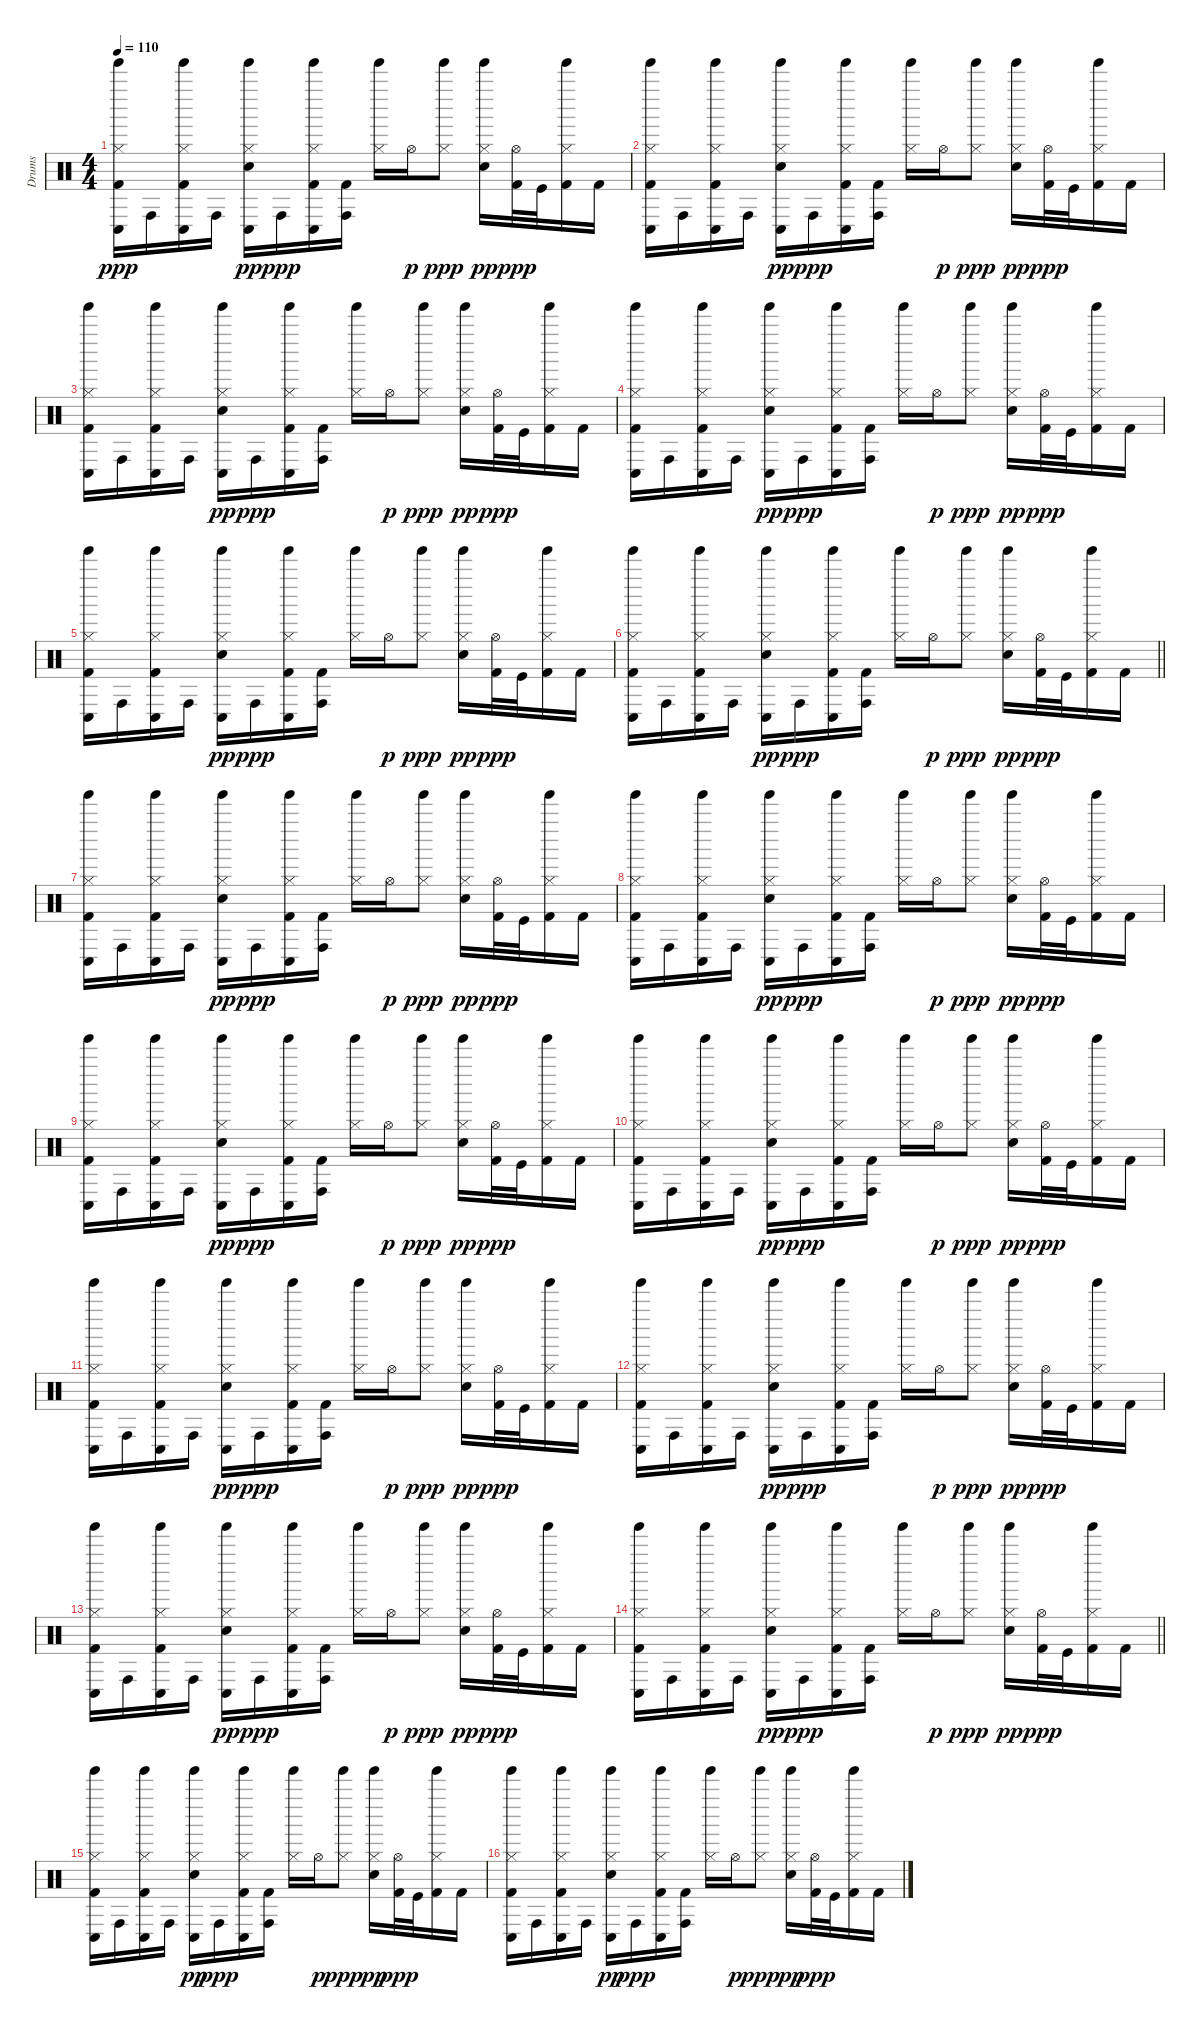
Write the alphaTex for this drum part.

\track ("Drums" "Drums") {instrument percussion}
\staff {score}
\articulation defaults
\ts (4 4)
\tempo 110
\clef neutral
\ks c
("Tinkle Bell (hit)" "Conga low (hit)" "Hi-Hat (closed)" "Kick (hit) 2").16{dy ppp} "Conga high (hit)".16 ("Tinkle Bell (hit)" "Conga low (hit)" "Hi-Hat (closed)" "Kick (hit) 2").16 "Conga high (hit)".16 ("Tinkle Bell (hit)" "Conga low (hit)" "Hi-Hat (closed)" "Snare (hit) 2").16{dy pp} "Conga high (hit)".16{dy ppp} ("Tinkle Bell (hit)" "Conga low (hit)" "Hi-Hat (closed)" "Kick (hit) 2").16 ("Conga high (hit)" "Kick (hit) 2").16 ("Tinkle Bell (hit)" "Hi-Hat (closed)").16 "Hi-Hat (open)".16{dy p} ("Tinkle Bell (hit)" "Hi-Hat (closed)").8{dy ppp} ("Tinkle Bell (hit)" "Hi-Hat (closed)" "Snare (hit) 2").16{dy pp} ("Hi-Hat (open)" "Kick (hit) 2").32{dy ppp} "Kick (hit)".32 ("Tinkle Bell (hit)" "Hi-Hat (closed)" "Kick (hit) 2").16 "Kick (hit) 2".16 |
("Tinkle Bell (hit)" "Conga low (hit)" "Hi-Hat (closed)" "Kick (hit) 2").16 "Conga high (hit)".16 ("Tinkle Bell (hit)" "Conga low (hit)" "Hi-Hat (closed)" "Kick (hit) 2").16 "Conga high (hit)".16 ("Tinkle Bell (hit)" "Conga low (hit)" "Hi-Hat (closed)" "Snare (hit) 2").16{dy pp} "Conga high (hit)".16{dy ppp} ("Tinkle Bell (hit)" "Conga low (hit)" "Hi-Hat (closed)" "Kick (hit) 2").16 ("Conga high (hit)" "Kick (hit) 2").16 ("Tinkle Bell (hit)" "Hi-Hat (closed)").16 "Hi-Hat (open)".16{dy p} ("Tinkle Bell (hit)" "Hi-Hat (closed)").8{dy ppp} ("Tinkle Bell (hit)" "Hi-Hat (closed)" "Snare (hit) 2").16{dy pp} ("Hi-Hat (open)" "Kick (hit) 2").32{dy ppp} "Kick (hit)".32 ("Tinkle Bell (hit)" "Hi-Hat (closed)" "Kick (hit) 2").16 "Kick (hit) 2".16 |
("Tinkle Bell (hit)" "Conga low (hit)" "Hi-Hat (closed)" "Kick (hit) 2").16 "Conga high (hit)".16 ("Tinkle Bell (hit)" "Conga low (hit)" "Hi-Hat (closed)" "Kick (hit) 2").16 "Conga high (hit)".16 ("Tinkle Bell (hit)" "Conga low (hit)" "Hi-Hat (closed)" "Snare (hit) 2").16{dy pp} "Conga high (hit)".16{dy ppp} ("Tinkle Bell (hit)" "Conga low (hit)" "Hi-Hat (closed)" "Kick (hit) 2").16 ("Conga high (hit)" "Kick (hit) 2").16 ("Tinkle Bell (hit)" "Hi-Hat (closed)").16 "Hi-Hat (open)".16{dy p} ("Tinkle Bell (hit)" "Hi-Hat (closed)").8{dy ppp} ("Tinkle Bell (hit)" "Hi-Hat (closed)" "Snare (hit) 2").16{dy pp} ("Hi-Hat (open)" "Kick (hit) 2").32{dy ppp} "Kick (hit)".32 ("Tinkle Bell (hit)" "Hi-Hat (closed)" "Kick (hit) 2").16 "Kick (hit) 2".16 |
("Tinkle Bell (hit)" "Conga low (hit)" "Hi-Hat (closed)" "Kick (hit) 2").16 "Conga high (hit)".16 ("Tinkle Bell (hit)" "Conga low (hit)" "Hi-Hat (closed)" "Kick (hit) 2").16 "Conga high (hit)".16 ("Tinkle Bell (hit)" "Conga low (hit)" "Hi-Hat (closed)" "Snare (hit) 2").16{dy pp} "Conga high (hit)".16{dy ppp} ("Tinkle Bell (hit)" "Conga low (hit)" "Hi-Hat (closed)" "Kick (hit) 2").16 ("Conga high (hit)" "Kick (hit) 2").16 ("Tinkle Bell (hit)" "Hi-Hat (closed)").16 "Hi-Hat (open)".16{dy p} ("Tinkle Bell (hit)" "Hi-Hat (closed)").8{dy ppp} ("Tinkle Bell (hit)" "Hi-Hat (closed)" "Snare (hit) 2").16{dy pp} ("Hi-Hat (open)" "Kick (hit) 2").32{dy ppp} "Kick (hit)".32 ("Tinkle Bell (hit)" "Hi-Hat (closed)" "Kick (hit) 2").16 "Kick (hit) 2".16 |
("Tinkle Bell (hit)" "Conga low (hit)" "Hi-Hat (closed)" "Kick (hit) 2").16 "Conga high (hit)".16 ("Tinkle Bell (hit)" "Conga low (hit)" "Hi-Hat (closed)" "Kick (hit) 2").16 "Conga high (hit)".16 ("Tinkle Bell (hit)" "Conga low (hit)" "Hi-Hat (closed)" "Snare (hit) 2").16{dy pp} "Conga high (hit)".16{dy ppp} ("Tinkle Bell (hit)" "Conga low (hit)" "Hi-Hat (closed)" "Kick (hit) 2").16 ("Conga high (hit)" "Kick (hit) 2").16 ("Tinkle Bell (hit)" "Hi-Hat (closed)").16 "Hi-Hat (open)".16{dy p} ("Tinkle Bell (hit)" "Hi-Hat (closed)").8{dy ppp} ("Tinkle Bell (hit)" "Hi-Hat (closed)" "Snare (hit) 2").16{dy pp} ("Hi-Hat (open)" "Kick (hit) 2").32{dy ppp} "Kick (hit)".32 ("Tinkle Bell (hit)" "Hi-Hat (closed)" "Kick (hit) 2").16 "Kick (hit) 2".16 |
\barLineRight lightlight
("Tinkle Bell (hit)" "Conga low (hit)" "Hi-Hat (closed)" "Kick (hit) 2").16 "Conga high (hit)".16 ("Tinkle Bell (hit)" "Conga low (hit)" "Hi-Hat (closed)" "Kick (hit) 2").16 "Conga high (hit)".16 ("Tinkle Bell (hit)" "Conga low (hit)" "Hi-Hat (closed)" "Snare (hit) 2").16{dy pp} "Conga high (hit)".16{dy ppp} ("Tinkle Bell (hit)" "Conga low (hit)" "Hi-Hat (closed)" "Kick (hit) 2").16 ("Conga high (hit)" "Kick (hit) 2").16 ("Tinkle Bell (hit)" "Hi-Hat (closed)").16 "Hi-Hat (open)".16{dy p} ("Tinkle Bell (hit)" "Hi-Hat (closed)").8{dy ppp} ("Tinkle Bell (hit)" "Hi-Hat (closed)" "Snare (hit) 2").16{dy pp} ("Hi-Hat (open)" "Kick (hit) 2").32{dy ppp} "Kick (hit)".32 ("Tinkle Bell (hit)" "Hi-Hat (closed)" "Kick (hit) 2").16 "Kick (hit) 2".16 |
("Tinkle Bell (hit)" "Conga low (hit)" "Hi-Hat (closed)" "Kick (hit) 2").16 "Conga high (hit)".16 ("Tinkle Bell (hit)" "Conga low (hit)" "Hi-Hat (closed)" "Kick (hit) 2").16 "Conga high (hit)".16 ("Tinkle Bell (hit)" "Conga low (hit)" "Hi-Hat (closed)" "Snare (hit) 2").16{dy pp} "Conga high (hit)".16{dy ppp} ("Tinkle Bell (hit)" "Conga low (hit)" "Hi-Hat (closed)" "Kick (hit) 2").16 ("Conga high (hit)" "Kick (hit) 2").16 ("Tinkle Bell (hit)" "Hi-Hat (closed)").16 "Hi-Hat (open)".16{dy p} ("Tinkle Bell (hit)" "Hi-Hat (closed)").8{dy ppp} ("Tinkle Bell (hit)" "Hi-Hat (closed)" "Snare (hit) 2").16{dy pp} ("Hi-Hat (open)" "Kick (hit) 2").32{dy ppp} "Kick (hit)".32 ("Tinkle Bell (hit)" "Hi-Hat (closed)" "Kick (hit) 2").16 "Kick (hit) 2".16 |
("Tinkle Bell (hit)" "Conga low (hit)" "Hi-Hat (closed)" "Kick (hit) 2").16 "Conga high (hit)".16 ("Tinkle Bell (hit)" "Conga low (hit)" "Hi-Hat (closed)" "Kick (hit) 2").16 "Conga high (hit)".16 ("Tinkle Bell (hit)" "Conga low (hit)" "Hi-Hat (closed)" "Snare (hit) 2").16{dy pp} "Conga high (hit)".16{dy ppp} ("Tinkle Bell (hit)" "Conga low (hit)" "Hi-Hat (closed)" "Kick (hit) 2").16 ("Conga high (hit)" "Kick (hit) 2").16 ("Tinkle Bell (hit)" "Hi-Hat (closed)").16 "Hi-Hat (open)".16{dy p} ("Tinkle Bell (hit)" "Hi-Hat (closed)").8{dy ppp} ("Tinkle Bell (hit)" "Hi-Hat (closed)" "Snare (hit) 2").16{dy pp} ("Hi-Hat (open)" "Kick (hit) 2").32{dy ppp} "Kick (hit)".32 ("Tinkle Bell (hit)" "Hi-Hat (closed)" "Kick (hit) 2").16 "Kick (hit) 2".16 |
("Tinkle Bell (hit)" "Conga low (hit)" "Hi-Hat (closed)" "Kick (hit) 2").16 "Conga high (hit)".16 ("Tinkle Bell (hit)" "Conga low (hit)" "Hi-Hat (closed)" "Kick (hit) 2").16 "Conga high (hit)".16 ("Tinkle Bell (hit)" "Conga low (hit)" "Hi-Hat (closed)" "Snare (hit) 2").16{dy pp} "Conga high (hit)".16{dy ppp} ("Tinkle Bell (hit)" "Conga low (hit)" "Hi-Hat (closed)" "Kick (hit) 2").16 ("Conga high (hit)" "Kick (hit) 2").16 ("Tinkle Bell (hit)" "Hi-Hat (closed)").16 "Hi-Hat (open)".16{dy p} ("Tinkle Bell (hit)" "Hi-Hat (closed)").8{dy ppp} ("Tinkle Bell (hit)" "Hi-Hat (closed)" "Snare (hit) 2").16{dy pp} ("Hi-Hat (open)" "Kick (hit) 2").32{dy ppp} "Kick (hit)".32 ("Tinkle Bell (hit)" "Hi-Hat (closed)" "Kick (hit) 2").16 "Kick (hit) 2".16 |
("Tinkle Bell (hit)" "Conga low (hit)" "Hi-Hat (closed)" "Kick (hit) 2").16 "Conga high (hit)".16 ("Tinkle Bell (hit)" "Conga low (hit)" "Hi-Hat (closed)" "Kick (hit) 2").16 "Conga high (hit)".16 ("Tinkle Bell (hit)" "Conga low (hit)" "Hi-Hat (closed)" "Snare (hit) 2").16{dy pp} "Conga high (hit)".16{dy ppp} ("Tinkle Bell (hit)" "Conga low (hit)" "Hi-Hat (closed)" "Kick (hit) 2").16 ("Conga high (hit)" "Kick (hit) 2").16 ("Tinkle Bell (hit)" "Hi-Hat (closed)").16 "Hi-Hat (open)".16{dy p} ("Tinkle Bell (hit)" "Hi-Hat (closed)").8{dy ppp} ("Tinkle Bell (hit)" "Hi-Hat (closed)" "Snare (hit) 2").16{dy pp} ("Hi-Hat (open)" "Kick (hit) 2").32{dy ppp} "Kick (hit)".32 ("Tinkle Bell (hit)" "Hi-Hat (closed)" "Kick (hit) 2").16 "Kick (hit) 2".16 |
("Tinkle Bell (hit)" "Conga low (hit)" "Hi-Hat (closed)" "Kick (hit) 2").16 "Conga high (hit)".16 ("Tinkle Bell (hit)" "Conga low (hit)" "Hi-Hat (closed)" "Kick (hit) 2").16 "Conga high (hit)".16 ("Tinkle Bell (hit)" "Conga low (hit)" "Hi-Hat (closed)" "Snare (hit) 2").16{dy pp} "Conga high (hit)".16{dy ppp} ("Tinkle Bell (hit)" "Conga low (hit)" "Hi-Hat (closed)" "Kick (hit) 2").16 ("Conga high (hit)" "Kick (hit) 2").16 ("Tinkle Bell (hit)" "Hi-Hat (closed)").16 "Hi-Hat (open)".16{dy p} ("Tinkle Bell (hit)" "Hi-Hat (closed)").8{dy ppp} ("Tinkle Bell (hit)" "Hi-Hat (closed)" "Snare (hit) 2").16{dy pp} ("Hi-Hat (open)" "Kick (hit) 2").32{dy ppp} "Kick (hit)".32 ("Tinkle Bell (hit)" "Hi-Hat (closed)" "Kick (hit) 2").16 "Kick (hit) 2".16 |
("Tinkle Bell (hit)" "Conga low (hit)" "Hi-Hat (closed)" "Kick (hit) 2").16 "Conga high (hit)".16 ("Tinkle Bell (hit)" "Conga low (hit)" "Hi-Hat (closed)" "Kick (hit) 2").16 "Conga high (hit)".16 ("Tinkle Bell (hit)" "Conga low (hit)" "Hi-Hat (closed)" "Snare (hit) 2").16{dy pp} "Conga high (hit)".16{dy ppp} ("Tinkle Bell (hit)" "Conga low (hit)" "Hi-Hat (closed)" "Kick (hit) 2").16 ("Conga high (hit)" "Kick (hit) 2").16 ("Tinkle Bell (hit)" "Hi-Hat (closed)").16 "Hi-Hat (open)".16{dy p} ("Tinkle Bell (hit)" "Hi-Hat (closed)").8{dy ppp} ("Tinkle Bell (hit)" "Hi-Hat (closed)" "Snare (hit) 2").16{dy pp} ("Hi-Hat (open)" "Kick (hit) 2").32{dy ppp} "Kick (hit)".32 ("Tinkle Bell (hit)" "Hi-Hat (closed)" "Kick (hit) 2").16 "Kick (hit) 2".16 |
("Tinkle Bell (hit)" "Conga low (hit)" "Hi-Hat (closed)" "Kick (hit) 2").16 "Conga high (hit)".16 ("Tinkle Bell (hit)" "Conga low (hit)" "Hi-Hat (closed)" "Kick (hit) 2").16 "Conga high (hit)".16 ("Tinkle Bell (hit)" "Conga low (hit)" "Hi-Hat (closed)" "Snare (hit) 2").16{dy pp} "Conga high (hit)".16{dy ppp} ("Tinkle Bell (hit)" "Conga low (hit)" "Hi-Hat (closed)" "Kick (hit) 2").16 ("Conga high (hit)" "Kick (hit) 2").16 ("Tinkle Bell (hit)" "Hi-Hat (closed)").16 "Hi-Hat (open)".16{dy p} ("Tinkle Bell (hit)" "Hi-Hat (closed)").8{dy ppp} ("Tinkle Bell (hit)" "Hi-Hat (closed)" "Snare (hit) 2").16{dy pp} ("Hi-Hat (open)" "Kick (hit) 2").32{dy ppp} "Kick (hit)".32 ("Tinkle Bell (hit)" "Hi-Hat (closed)" "Kick (hit) 2").16 "Kick (hit) 2".16 |
\barLineRight lightlight
("Tinkle Bell (hit)" "Conga low (hit)" "Hi-Hat (closed)" "Kick (hit) 2").16 "Conga high (hit)".16 ("Tinkle Bell (hit)" "Conga low (hit)" "Hi-Hat (closed)" "Kick (hit) 2").16 "Conga high (hit)".16 ("Tinkle Bell (hit)" "Conga low (hit)" "Hi-Hat (closed)" "Snare (hit) 2").16{dy pp} "Conga high (hit)".16{dy ppp} ("Tinkle Bell (hit)" "Conga low (hit)" "Hi-Hat (closed)" "Kick (hit) 2").16 ("Conga high (hit)" "Kick (hit) 2").16 ("Tinkle Bell (hit)" "Hi-Hat (closed)").16 "Hi-Hat (open)".16{dy p} ("Tinkle Bell (hit)" "Hi-Hat (closed)").8{dy ppp} ("Tinkle Bell (hit)" "Hi-Hat (closed)" "Snare (hit) 2").16{dy pp} ("Hi-Hat (open)" "Kick (hit) 2").32{dy ppp} "Kick (hit)".32 ("Tinkle Bell (hit)" "Hi-Hat (closed)" "Kick (hit) 2").16 "Kick (hit) 2".16 |
("Tinkle Bell (hit)" "Conga low (hit)" "Hi-Hat (closed)" "Kick (hit) 2").16 "Conga high (hit)".16 ("Tinkle Bell (hit)" "Conga low (hit)" "Hi-Hat (closed)" "Kick (hit) 2").16 "Conga high (hit)".16 ("Tinkle Bell (hit)" "Conga low (hit)" "Hi-Hat (closed)" "Snare (hit) 2").16{dy pp} "Conga high (hit)".16{dy ppp} ("Tinkle Bell (hit)" "Conga low (hit)" "Hi-Hat (closed)" "Kick (hit) 2").16 ("Conga high (hit)" "Kick (hit) 2").16 ("Tinkle Bell (hit)" "Hi-Hat (closed)").16 "Hi-Hat (open)".16{dy p} ("Tinkle Bell (hit)" "Hi-Hat (closed)").8{dy ppp} ("Tinkle Bell (hit)" "Hi-Hat (closed)" "Snare (hit) 2").16{dy pp} ("Hi-Hat (open)" "Kick (hit) 2").32{dy ppp} "Kick (hit)".32 ("Tinkle Bell (hit)" "Hi-Hat (closed)" "Kick (hit) 2").16 "Kick (hit) 2".16 |
("Tinkle Bell (hit)" "Conga low (hit)" "Hi-Hat (closed)" "Kick (hit) 2").16 "Conga high (hit)".16 ("Tinkle Bell (hit)" "Conga low (hit)" "Hi-Hat (closed)" "Kick (hit) 2").16 "Conga high (hit)".16 ("Tinkle Bell (hit)" "Conga low (hit)" "Hi-Hat (closed)" "Snare (hit) 2").16{dy pp} "Conga high (hit)".16{dy ppp} ("Tinkle Bell (hit)" "Conga low (hit)" "Hi-Hat (closed)" "Kick (hit) 2").16 ("Conga high (hit)" "Kick (hit) 2").16 ("Tinkle Bell (hit)" "Hi-Hat (closed)").16 "Hi-Hat (open)".16{dy p} ("Tinkle Bell (hit)" "Hi-Hat (closed)").8{dy ppp} ("Tinkle Bell (hit)" "Hi-Hat (closed)" "Snare (hit) 2").16{dy pp} ("Hi-Hat (open)" "Kick (hit) 2").32{dy ppp} "Kick (hit)".32 ("Tinkle Bell (hit)" "Hi-Hat (closed)" "Kick (hit) 2").16 "Kick (hit) 2".16
